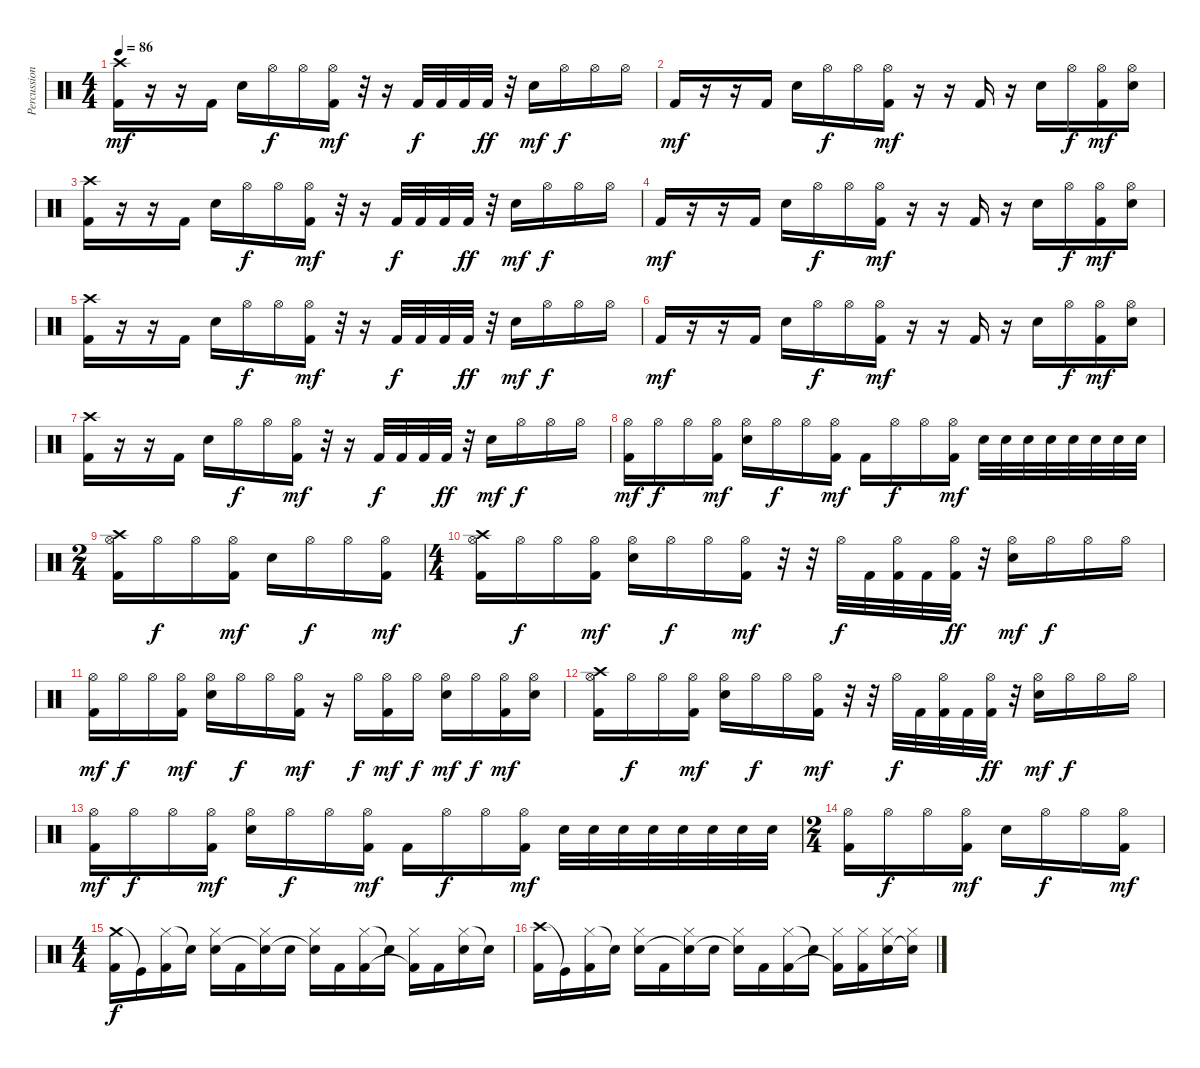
\track ("Percussion" "Percussion") {instrument percussion}
\staff {score}
\articulation defaults
\ts (4 4)
\tempo 86
\clef neutral
\ks c
("Crash high (hit)" "Kick (hit) 2").16{dy mf} r.16 r.16 "Kick (hit) 2".16 "Electric Snare (hit)".16 "Hi-Hat (open)".16{dy f} "Hi-Hat (open)".16 ("Hi-Hat (open)" "Kick (hit) 2").16{dy mf} r.32 r.16 "Kick (hit) 2".32{dy f} "Kick (hit) 2".32 "Kick (hit) 2".32 "Kick (hit) 2".32{dy ff} r.32 "Electric Snare (hit)".16{dy mf} "Hi-Hat (open)".16{dy f} "Hi-Hat (open)".16 "Hi-Hat (open)".16 |
"Kick (hit) 2".16{dy mf} r.16 r.16 "Kick (hit) 2".16 "Electric Snare (hit)".16 "Hi-Hat (open)".16{dy f} "Hi-Hat (open)".16 ("Hi-Hat (open)" "Kick (hit) 2").16{dy mf} r.16 r.16 "Kick (hit) 2".16 r.16 "Electric Snare (hit)".16 "Hi-Hat (open)".16{dy f} ("Hi-Hat (open)" "Kick (hit) 2").16{dy mf} ("Hi-Hat (open)" "Electric Snare (hit)").16 |
("Crash high (hit)" "Kick (hit) 2").16 r.16 r.16 "Kick (hit) 2".16 "Electric Snare (hit)".16 "Hi-Hat (open)".16{dy f} "Hi-Hat (open)".16 ("Hi-Hat (open)" "Kick (hit) 2").16{dy mf} r.32 r.16 "Kick (hit) 2".32{dy f} "Kick (hit) 2".32 "Kick (hit) 2".32 "Kick (hit) 2".32{dy ff} r.32 "Electric Snare (hit)".16{dy mf} "Hi-Hat (open)".16{dy f} "Hi-Hat (open)".16 "Hi-Hat (open)".16 |
"Kick (hit) 2".16{dy mf} r.16 r.16 "Kick (hit) 2".16 "Electric Snare (hit)".16 "Hi-Hat (open)".16{dy f} "Hi-Hat (open)".16 ("Hi-Hat (open)" "Kick (hit) 2").16{dy mf} r.16 r.16 "Kick (hit) 2".16 r.16 "Electric Snare (hit)".16 "Hi-Hat (open)".16{dy f} ("Hi-Hat (open)" "Kick (hit) 2").16{dy mf} ("Hi-Hat (open)" "Electric Snare (hit)").16 |
("Crash high (hit)" "Kick (hit) 2").16 r.16 r.16 "Kick (hit) 2".16 "Electric Snare (hit)".16 "Hi-Hat (open)".16{dy f} "Hi-Hat (open)".16 ("Hi-Hat (open)" "Kick (hit) 2").16{dy mf} r.32 r.16 "Kick (hit) 2".32{dy f} "Kick (hit) 2".32 "Kick (hit) 2".32 "Kick (hit) 2".32{dy ff} r.32 "Electric Snare (hit)".16{dy mf} "Hi-Hat (open)".16{dy f} "Hi-Hat (open)".16 "Hi-Hat (open)".16 |
"Kick (hit) 2".16{dy mf} r.16 r.16 "Kick (hit) 2".16 "Electric Snare (hit)".16 "Hi-Hat (open)".16{dy f} "Hi-Hat (open)".16 ("Hi-Hat (open)" "Kick (hit) 2").16{dy mf} r.16 r.16 "Kick (hit) 2".16 r.16 "Electric Snare (hit)".16 "Hi-Hat (open)".16{dy f} ("Hi-Hat (open)" "Kick (hit) 2").16{dy mf} ("Hi-Hat (open)" "Electric Snare (hit)").16 |
("Crash high (hit)" "Kick (hit) 2").16 r.16 r.16 "Kick (hit) 2".16 "Electric Snare (hit)".16 "Hi-Hat (open)".16{dy f} "Hi-Hat (open)".16 ("Hi-Hat (open)" "Kick (hit) 2").16{dy mf} r.32 r.16 "Kick (hit) 2".32{dy f} "Kick (hit) 2".32 "Kick (hit) 2".32 "Kick (hit) 2".32{dy ff} r.32 "Electric Snare (hit)".16{dy mf} "Hi-Hat (open)".16{dy f} "Hi-Hat (open)".16 "Hi-Hat (open)".16 |
("Hi-Hat (open)" "Kick (hit) 2").16{dy mf} "Hi-Hat (open)".16{dy f} "Hi-Hat (open)".16 ("Hi-Hat (open)" "Kick (hit) 2").16{dy mf} ("Hi-Hat (open)" "Electric Snare (hit)").16 "Hi-Hat (open)".16{dy f} "Hi-Hat (open)".16 ("Hi-Hat (open)" "Kick (hit) 2").16{dy mf} "Kick (hit) 2".16 "Hi-Hat (open)".16{dy f} "Hi-Hat (open)".16 ("Hi-Hat (open)" "Kick (hit) 2").16{dy mf} "Electric Snare (hit)".32 "Electric Snare (hit)".32 "Electric Snare (hit)".32 "Electric Snare (hit)".32 "Electric Snare (hit)".32 "Electric Snare (hit)".32 "Electric Snare (hit)".32 "Electric Snare (hit)".32 |
\ts (2 4)
("Crash high (hit)" "Hi-Hat (open)" "Kick (hit) 2").16 "Hi-Hat (open)".16{dy f} "Hi-Hat (open)".16 ("Hi-Hat (open)" "Kick (hit) 2").16{dy mf} "Electric Snare (hit)".16 "Hi-Hat (open)".16{dy f} "Hi-Hat (open)".16 ("Hi-Hat (open)" "Kick (hit) 2").16{dy mf} |
\ts (4 4)
("Crash high (hit)" "Hi-Hat (open)" "Kick (hit) 2").16 "Hi-Hat (open)".16{dy f} "Hi-Hat (open)".16 ("Hi-Hat (open)" "Kick (hit) 2").16{dy mf} ("Hi-Hat (open)" "Electric Snare (hit)").16 "Hi-Hat (open)".16{dy f} "Hi-Hat (open)".16 ("Hi-Hat (open)" "Kick (hit) 2").16{dy mf} r.32 r.32 "Hi-Hat (open)".32{dy f} "Kick (hit) 2".32 ("Hi-Hat (open)" "Kick (hit) 2").32 "Kick (hit) 2".32 ("Hi-Hat (open)" "Kick (hit) 2").32{dy ff} r.32 ("Hi-Hat (open)" "Electric Snare (hit)").16{dy mf} "Hi-Hat (open)".16{dy f} "Hi-Hat (open)".16 "Hi-Hat (open)".16 |
("Hi-Hat (open)" "Kick (hit) 2").16{dy mf} "Hi-Hat (open)".16{dy f} "Hi-Hat (open)".16 ("Hi-Hat (open)" "Kick (hit) 2").16{dy mf} ("Hi-Hat (open)" "Electric Snare (hit)").16 "Hi-Hat (open)".16{dy f} "Hi-Hat (open)".16 ("Hi-Hat (open)" "Kick (hit) 2").16{dy mf} r.16 "Hi-Hat (open)".16{dy f} ("Hi-Hat (open)" "Kick (hit) 2").16{dy mf} "Hi-Hat (open)".16{dy f} ("Hi-Hat (open)" "Electric Snare (hit)").16{dy mf} "Hi-Hat (open)".16{dy f} ("Hi-Hat (open)" "Kick (hit) 2").16{dy mf} ("Hi-Hat (open)" "Electric Snare (hit)").16 |
("Crash high (hit)" "Hi-Hat (open)" "Kick (hit) 2").16 "Hi-Hat (open)".16{dy f} "Hi-Hat (open)".16 ("Hi-Hat (open)" "Kick (hit) 2").16{dy mf} ("Hi-Hat (open)" "Electric Snare (hit)").16 "Hi-Hat (open)".16{dy f} "Hi-Hat (open)".16 ("Hi-Hat (open)" "Kick (hit) 2").16{dy mf} r.32 r.32 "Hi-Hat (open)".32{dy f} "Kick (hit) 2".32 ("Hi-Hat (open)" "Kick (hit) 2").32 "Kick (hit) 2".32 ("Hi-Hat (open)" "Kick (hit) 2").32{dy ff} r.32 ("Hi-Hat (open)" "Electric Snare (hit)").16{dy mf} "Hi-Hat (open)".16{dy f} "Hi-Hat (open)".16 "Hi-Hat (open)".16 |
("Hi-Hat (open)" "Kick (hit) 2").16{dy mf} "Hi-Hat (open)".16{dy f} "Hi-Hat (open)".16 ("Hi-Hat (open)" "Kick (hit) 2").16{dy mf} ("Hi-Hat (open)" "Electric Snare (hit)").16 "Hi-Hat (open)".16{dy f} "Hi-Hat (open)".16 ("Hi-Hat (open)" "Kick (hit) 2").16{dy mf} "Kick (hit) 2".16 "Hi-Hat (open)".16{dy f} "Hi-Hat (open)".16 ("Hi-Hat (open)" "Kick (hit) 2").16{dy mf} "Electric Snare (hit)".32 "Electric Snare (hit)".32 "Electric Snare (hit)".32 "Electric Snare (hit)".32 "Electric Snare (hit)".32 "Electric Snare (hit)".32 "Electric Snare (hit)".32 "Electric Snare (hit)".32 |
\ts (2 4)
("Hi-Hat (open)" "Kick (hit) 2").16 "Hi-Hat (open)".16{dy f} "Hi-Hat (open)".16 ("Hi-Hat (open)" "Kick (hit) 2").16{dy mf} "Electric Snare (hit)".16 "Hi-Hat (open)".16{dy f} "Hi-Hat (open)".16 ("Hi-Hat (open)" "Kick (hit) 2").16{dy mf} |
\ts (4 4)
("Crash medium (hit)" "Kick (hit) 2").16{dy f} "Kick (hit)"{t}.16 ("Hi-Hat (closed)" "Kick (hit) 2").16 "Snare (hit)"{t}.16 ("Hi-Hat (closed)" "Electric Snare (hit)").16 "Kick (hit) 2".16 ("Hi-Hat (closed)" "Snare (hit)"{t}).16 "Electric Snare (hit)".16 ("Hi-Hat (closed)" "Snare (hit)"{t}).16 "Kick (hit) 2".16 ("Hi-Hat (closed)" "Kick (hit) 2").16 "Snare (hit)"{t}.16 ("Hi-Hat (closed)" "Kick (hit) 2"{t}).16 "Kick (hit) 2".16 ("Hi-Hat (closed)" "Electric Snare (hit)").16 "Snare (hit)"{t}.16 |
("Crash high (hit)" "Kick (hit) 2").16 "Kick (hit)"{t}.16 ("Hi-Hat (closed)" "Kick (hit) 2").16 "Snare (hit)"{t}.16 ("Hi-Hat (closed)" "Electric Snare (hit)").16 "Kick (hit) 2".16 ("Hi-Hat (closed)" "Snare (hit)"{t}).16 "Electric Snare (hit)".16 ("Hi-Hat (closed)" "Snare (hit)"{t}).16 "Kick (hit) 2".16 ("Hi-Hat (closed)" "Kick (hit) 2").16 "Snare (hit)"{t}.16 ("Hi-Hat (closed)" "Kick (hit) 2"{t}).16 ("Hi-Hat (closed)" "Kick (hit) 2").16 ("Hi-Hat (closed)" "Electric Snare (hit)").16 ("Hi-Hat (closed)" "Snare (hit)"{t}).16
